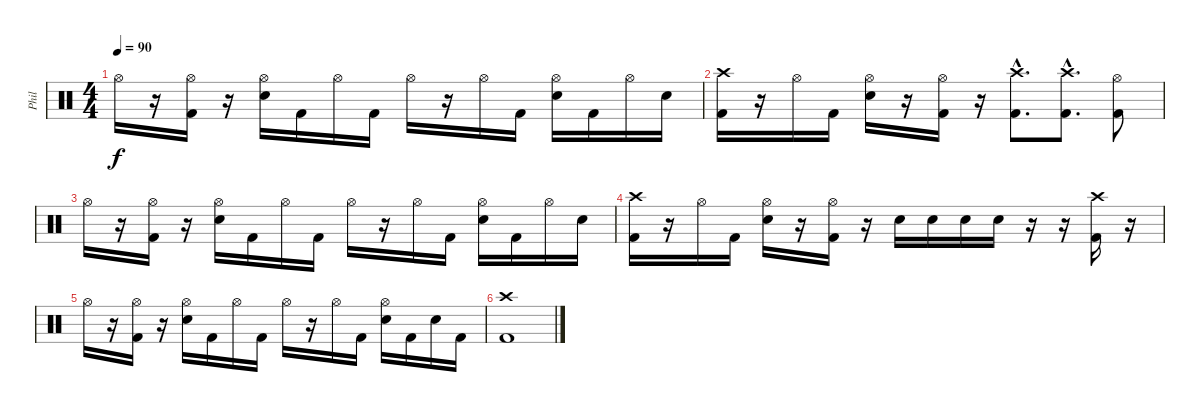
\track ("Phil" "Phil") {instrument percussion}
\staff {score}
\articulation defaults
\ts (4 4)
\tempo 90
\clef neutral
\ks c "Hi-Hat (open)".16{dy f}
r.16 ("Hi-Hat (open)" "Kick (hit) 2").16 r.16 ("Hi-Hat (open)" "Electric Snare (hit)").16 "Kick (hit) 2".16 "Hi-Hat (open)".16 "Kick (hit) 2".16 "Hi-Hat (open)".16 r.16 "Hi-Hat (open)".16 "Kick (hit) 2".16 ("Hi-Hat (open)" "Electric Snare (hit)").16 "Kick (hit) 2".16 "Hi-Hat (open)".16 "Electric Snare (hit)".16 |
("Crash high (hit)" "Kick (hit) 2").16 r.16 "Hi-Hat (open)".16 "Kick (hit) 2".16 ("Hi-Hat (open)" "Electric Snare (hit)").16 r.16 ("Hi-Hat (open)" "Kick (hit) 2").16 r.16 ("Crash high (hit)"{hac} "Kick (hit) 2"{hac}).8{d} ("Crash high (hit)"{hac} "Kick (hit) 2"{hac}).8{d} ("Hi-Hat (open)" "Kick (hit) 2").8 |
"Hi-Hat (open)".16 r.16 ("Hi-Hat (open)" "Kick (hit) 2").16 r.16 ("Hi-Hat (open)" "Electric Snare (hit)").16 "Kick (hit) 2".16 "Hi-Hat (open)".16 "Kick (hit) 2".16 "Hi-Hat (open)".16 r.16 "Hi-Hat (open)".16 "Kick (hit) 2".16 ("Hi-Hat (open)" "Electric Snare (hit)").16 "Kick (hit) 2".16 "Hi-Hat (open)".16 "Electric Snare (hit)".16 |
("Crash high (hit)" "Kick (hit) 2").16 r.16 "Hi-Hat (open)".16 "Kick (hit) 2".16 ("Hi-Hat (open)" "Electric Snare (hit)").16 r.16 ("Hi-Hat (open)" "Kick (hit) 2").16 r.16 "Electric Snare (hit)".16 "Electric Snare (hit)".16 "Electric Snare (hit)".16 "Electric Snare (hit)".16 r.16 r.16 ("Crash high (hit)" "Kick (hit) 2").16 r.16 |
"Hi-Hat (open)".16 r.16 ("Hi-Hat (open)" "Kick (hit) 2").16 r.16 ("Hi-Hat (open)" "Electric Snare (hit)").16 "Kick (hit) 2".16 "Hi-Hat (open)".16 "Kick (hit) 2".16 "Hi-Hat (open)".16 r.16 "Hi-Hat (open)".16 "Kick (hit) 2".16 ("Hi-Hat (open)" "Electric Snare (hit)").16 "Kick (hit) 2".16 "Electric Snare (hit)".16 "Kick (hit) 2".16 |
("Crash high (hit)" "Kick (hit) 2").1
